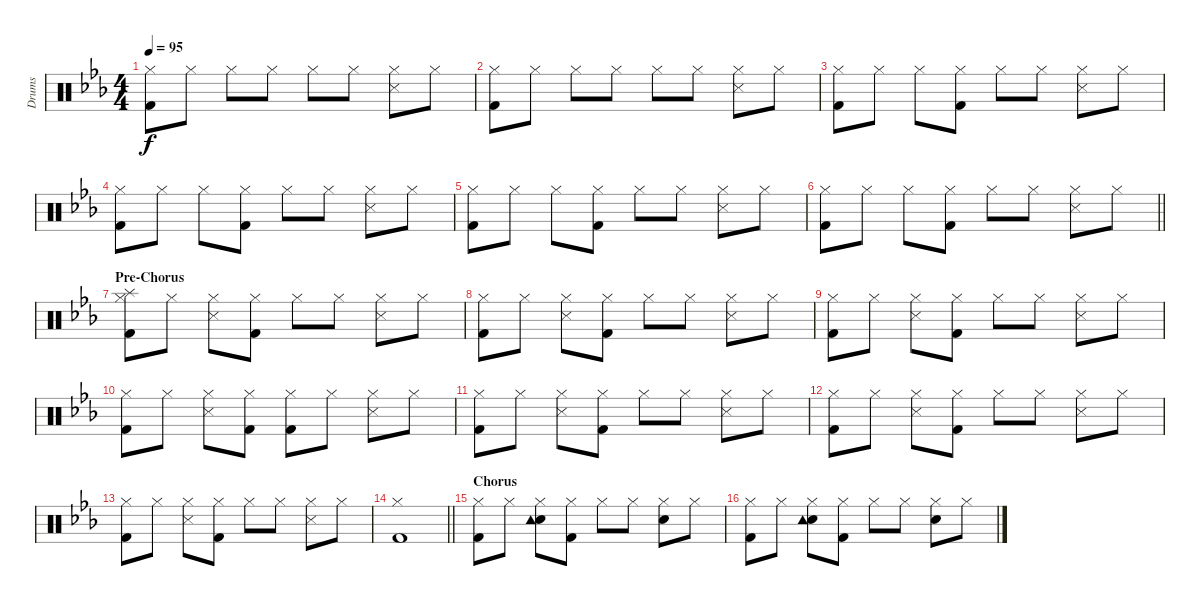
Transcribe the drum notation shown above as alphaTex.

\track ("Drums" "Drums") {instrument percussion}
\staff {score}
\articulation defaults
\ts (4 4)
\tempo 95
\clef neutral
\ks eb
("Hi-Hat (closed)" "Kick (hit) 2").8{dy f} "Hi-Hat (closed)".8 "Hi-Hat (closed)".8 "Hi-Hat (closed)".8 "Hi-Hat (closed)".8 "Hi-Hat (closed)".8 ("Hi-Hat (closed)" "Snare (side stick) 3").8 "Hi-Hat (closed)".8 |
("Hi-Hat (closed)" "Kick (hit) 2").8 "Hi-Hat (closed)".8 "Hi-Hat (closed)".8 "Hi-Hat (closed)".8 "Hi-Hat (closed)".8 "Hi-Hat (closed)".8 ("Hi-Hat (closed)" "Snare (side stick) 3").8 "Hi-Hat (closed)".8 |
("Hi-Hat (closed)" "Kick (hit) 2").8 "Hi-Hat (closed)".8 "Hi-Hat (closed)".8 ("Hi-Hat (closed)" "Kick (hit) 2").8 "Hi-Hat (closed)".8 "Hi-Hat (closed)".8 ("Hi-Hat (closed)" "Snare (side stick) 3").8 "Hi-Hat (closed)".8 |
("Hi-Hat (closed)" "Kick (hit) 2").8 "Hi-Hat (closed)".8 "Hi-Hat (closed)".8 ("Hi-Hat (closed)" "Kick (hit) 2").8 "Hi-Hat (closed)".8 "Hi-Hat (closed)".8 ("Hi-Hat (closed)" "Snare (side stick) 3").8 "Hi-Hat (closed)".8 |
("Hi-Hat (closed)" "Kick (hit) 2").8 "Hi-Hat (closed)".8 "Hi-Hat (closed)".8 ("Hi-Hat (closed)" "Kick (hit) 2").8 "Hi-Hat (closed)".8 "Hi-Hat (closed)".8 ("Hi-Hat (closed)" "Snare (side stick) 3").8 "Hi-Hat (closed)".8 |
\barLineRight lightlight
("Hi-Hat (closed)" "Kick (hit) 2").8 "Hi-Hat (closed)".8 "Hi-Hat (closed)".8 ("Hi-Hat (closed)" "Kick (hit) 2").8 "Hi-Hat (closed)".8 "Hi-Hat (closed)".8 ("Hi-Hat (closed)" "Snare (side stick) 3").8 "Hi-Hat (closed)".8 |
\section ("" "Pre-Chorus")
("Hi-Hat (closed)" "Splash (hit)" "Kick (hit) 2").8 "Hi-Hat (closed)".8 ("Hi-Hat (closed)" "Snare (side stick) 3").8 ("Hi-Hat (closed)" "Kick (hit) 2").8 "Hi-Hat (closed)".8 "Hi-Hat (closed)".8 ("Hi-Hat (closed)" "Snare (side stick) 3").8 "Hi-Hat (closed)".8 |
("Hi-Hat (closed)" "Kick (hit) 2").8 "Hi-Hat (closed)".8 ("Hi-Hat (closed)" "Snare (side stick) 3").8 ("Hi-Hat (closed)" "Kick (hit) 2").8 "Hi-Hat (closed)".8 "Hi-Hat (closed)".8 ("Hi-Hat (closed)" "Snare (side stick) 3").8 "Hi-Hat (closed)".8 |
("Hi-Hat (closed)" "Kick (hit) 2").8 "Hi-Hat (closed)".8 ("Hi-Hat (closed)" "Snare (side stick) 3").8 ("Hi-Hat (closed)" "Kick (hit) 2").8 "Hi-Hat (closed)".8 "Hi-Hat (closed)".8 ("Hi-Hat (closed)" "Snare (side stick) 3").8 "Hi-Hat (closed)".8 |
("Hi-Hat (closed)" "Kick (hit) 2").8 "Hi-Hat (closed)".8 ("Hi-Hat (closed)" "Snare (side stick) 3").8 ("Hi-Hat (closed)" "Kick (hit) 2").8 ("Hi-Hat (closed)" "Kick (hit) 2").8 "Hi-Hat (closed)".8 ("Hi-Hat (closed)" "Snare (side stick) 3").8 "Hi-Hat (closed)".8 |
("Hi-Hat (closed)" "Kick (hit) 2").8 "Hi-Hat (closed)".8 ("Hi-Hat (closed)" "Snare (side stick) 3").8 ("Hi-Hat (closed)" "Kick (hit) 2").8 "Hi-Hat (closed)".8 "Hi-Hat (closed)".8 ("Hi-Hat (closed)" "Snare (side stick) 3").8 "Hi-Hat (closed)".8 |
("Hi-Hat (closed)" "Kick (hit) 2").8 "Hi-Hat (closed)".8 ("Hi-Hat (closed)" "Snare (side stick) 3").8 ("Hi-Hat (closed)" "Kick (hit) 2").8 "Hi-Hat (closed)".8 "Hi-Hat (closed)".8 ("Hi-Hat (closed)" "Snare (side stick) 3").8 "Hi-Hat (closed)".8 |
("Hi-Hat (closed)" "Kick (hit) 2").8 "Hi-Hat (closed)".8 ("Hi-Hat (closed)" "Snare (side stick) 3").8 ("Hi-Hat (closed)" "Kick (hit) 2").8 "Hi-Hat (closed)".8 "Hi-Hat (closed)".8 ("Hi-Hat (closed)" "Snare (side stick) 3").8 "Hi-Hat (closed)".8 |
\barLineRight lightlight
("Hi-Hat (closed)" "Kick (hit) 2").1 |
\section ("" "Chorus")
("Hi-Hat (closed)" "Kick (hit) 2").8 "Hi-Hat (closed)".8 ("Hi-Hat (closed)" "Snare (hit) 2" "Tambourine (hit)").8 ("Hi-Hat (closed)" "Kick (hit) 2").8 "Hi-Hat (closed)".8 "Hi-Hat (closed)".8 ("Hi-Hat (closed)" "Snare (hit) 2").8 "Hi-Hat (closed)".8 |
("Hi-Hat (closed)" "Kick (hit) 2").8 "Hi-Hat (closed)".8 ("Hi-Hat (closed)" "Snare (hit) 2" "Tambourine (hit)").8 ("Hi-Hat (closed)" "Kick (hit) 2").8 "Hi-Hat (closed)".8 "Hi-Hat (closed)".8 ("Hi-Hat (closed)" "Snare (hit) 2").8 "Hi-Hat (closed)".8
